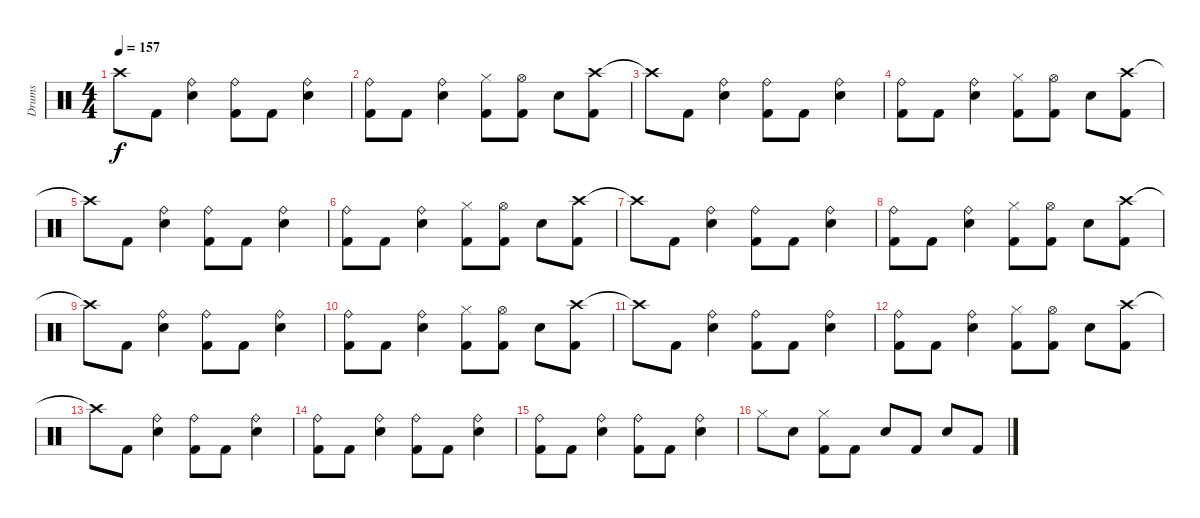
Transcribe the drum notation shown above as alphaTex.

\track ("Drums" "Drums") {instrument percussion}
\staff {score}
\articulation defaults
\ts (4 4)
\tempo 157
\clef neutral
\ks c "Crash high (hit)"{t}.8{dy f} "Kick (hit) 2".8
("Ride (bell)" "Snare (hit) 2").4 ("Ride (bell)" "Kick (hit) 2").8 "Kick (hit) 2".8 ("Ride (bell)" "Snare (hit) 2").4 |
("Ride (bell)" "Kick (hit) 2").8 "Kick (hit) 2".8 ("Ride (bell)" "Snare (hit) 2").4 ("Hi-Hat (closed)" "Kick (hit) 2").8 ("Hi-Hat (open)" "Kick (hit) 2").8 "Snare (hit) 2".8 ("Crash high (hit)" "Kick (hit) 2").8 |
"Crash high (hit)"{t}.8 "Kick (hit) 2".8 ("Ride (bell)" "Snare (hit) 2").4 ("Ride (bell)" "Kick (hit) 2").8 "Kick (hit) 2".8 ("Ride (bell)" "Snare (hit) 2").4 |
("Ride (bell)" "Kick (hit) 2").8 "Kick (hit) 2".8 ("Ride (bell)" "Snare (hit) 2").4 ("Hi-Hat (closed)" "Kick (hit) 2").8 ("Hi-Hat (open)" "Kick (hit) 2").8 "Snare (hit) 2".8 ("Crash high (hit)" "Kick (hit) 2").8 |
"Crash high (hit)"{t}.8 "Kick (hit) 2".8 ("Ride (bell)" "Snare (hit) 2").4 ("Ride (bell)" "Kick (hit) 2").8 "Kick (hit) 2".8 ("Ride (bell)" "Snare (hit) 2").4 |
("Ride (bell)" "Kick (hit) 2").8 "Kick (hit) 2".8 ("Ride (bell)" "Snare (hit) 2").4 ("Hi-Hat (closed)" "Kick (hit) 2").8 ("Hi-Hat (open)" "Kick (hit) 2").8 "Snare (hit) 2".8 ("Crash high (hit)" "Kick (hit) 2").8 |
"Crash high (hit)"{t}.8 "Kick (hit) 2".8 ("Ride (bell)" "Snare (hit) 2").4 ("Ride (bell)" "Kick (hit) 2").8 "Kick (hit) 2".8 ("Ride (bell)" "Snare (hit) 2").4 |
("Ride (bell)" "Kick (hit) 2").8 "Kick (hit) 2".8 ("Ride (bell)" "Snare (hit) 2").4 ("Hi-Hat (closed)" "Kick (hit) 2").8 ("Hi-Hat (open)" "Kick (hit) 2").8 "Snare (hit) 2".8 ("Crash high (hit)" "Kick (hit) 2").8 |
"Crash high (hit)"{t}.8 "Kick (hit) 2".8 ("Ride (bell)" "Snare (hit) 2").4 ("Ride (bell)" "Kick (hit) 2").8 "Kick (hit) 2".8 ("Ride (bell)" "Snare (hit) 2").4 |
("Ride (bell)" "Kick (hit) 2").8 "Kick (hit) 2".8 ("Ride (bell)" "Snare (hit) 2").4 ("Hi-Hat (closed)" "Kick (hit) 2").8 ("Hi-Hat (open)" "Kick (hit) 2").8 "Snare (hit) 2".8 ("Crash high (hit)" "Kick (hit) 2").8 |
"Crash high (hit)"{t}.8 "Kick (hit) 2".8 ("Ride (bell)" "Snare (hit) 2").4 ("Ride (bell)" "Kick (hit) 2").8 "Kick (hit) 2".8 ("Ride (bell)" "Snare (hit) 2").4 |
("Ride (bell)" "Kick (hit) 2").8 "Kick (hit) 2".8 ("Ride (bell)" "Snare (hit) 2").4 ("Hi-Hat (closed)" "Kick (hit) 2").8 ("Hi-Hat (open)" "Kick (hit) 2").8 "Snare (hit) 2".8 ("Crash high (hit)" "Kick (hit) 2").8 |
"Crash high (hit)"{t}.8 "Kick (hit) 2".8 ("Ride (bell)" "Snare (hit) 2").4 ("Ride (bell)" "Kick (hit) 2").8 "Kick (hit) 2".8 ("Ride (bell)" "Snare (hit) 2").4 |
("Ride (bell)" "Kick (hit) 2").8 "Kick (hit) 2".8 ("Ride (bell)" "Snare (hit) 2").4 ("Ride (bell)" "Kick (hit) 2").8 "Kick (hit) 2".8 ("Ride (bell)" "Snare (hit) 2").4 |
("Ride (bell)" "Kick (hit) 2").8 "Kick (hit) 2".8 ("Ride (bell)" "Snare (hit) 2").4 ("Ride (bell)" "Kick (hit) 2").8 "Kick (hit) 2".8 ("Ride (bell)" "Snare (hit) 2").4 |
"Hi-Hat (closed)".8 "Snare (hit) 2".8 ("Hi-Hat (closed)" "Kick (hit) 2").8 "Kick (hit) 2".8 "Snare (hit) 2".8 "Kick (hit) 2".8 "Snare (hit) 2".8 "Kick (hit) 2".8
